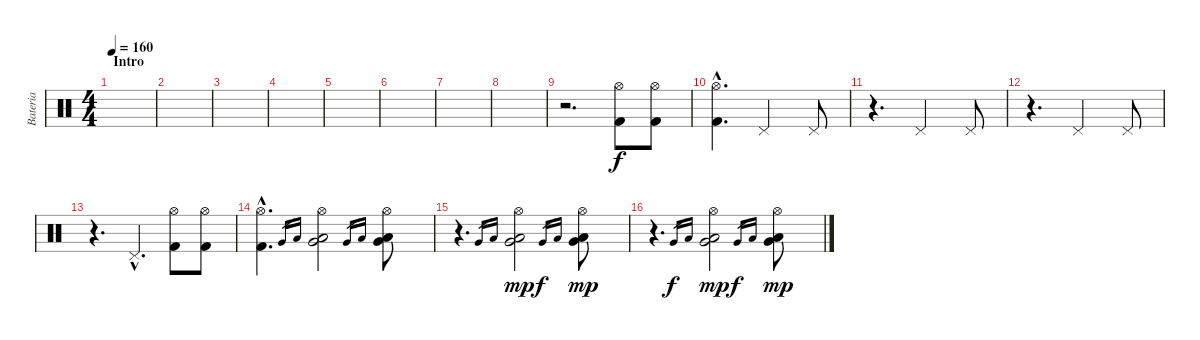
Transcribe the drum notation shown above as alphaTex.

\track ("Bateria" "Bateria") {instrument percussion}
\staff {score}
\articulation defaults
\ts (4 4)
\section ("" "Intro")
\tempo 160
\clef neutral
\ks c
|
|
|
|
|
|
|
|
r.2{d} ("Kick (hit) 2" "Hi-Hat (open)").8 ("Kick (hit) 2" "Hi-Hat (open)").8 |
("Kick (hit) 2"{hac} "Hi-Hat (open)"{hac}).4{d} "Pedal Hi-Hat (hit)".2 "Pedal Hi-Hat (hit)".8 |
r.4{d} "Pedal Hi-Hat (hit)".2 "Pedal Hi-Hat (hit)".8 |
r.4{d} "Pedal Hi-Hat (hit)".2 "Pedal Hi-Hat (hit)".8 |
r.4{d} "Pedal Hi-Hat (hit)"{hac}.4{d} ("Hi-Hat (open)" "Kick (hit) 2").8 ("Hi-Hat (open)" "Kick (hit) 2").8 |
("Kick (hit) 2"{hac} "Hi-Hat (open)"{hac}).4{d} "Very Low Tom (hit)".16{gr} "Low Tom (hit)".16{gr} ("Very Low Tom (hit)" "Low Tom (hit)" "Hi-Hat (open)").2 "Very Low Tom (hit)".16{gr} "Low Tom (hit)".16{gr} ("Very Low Tom (hit)" "Low Tom (hit)" "Hi-Hat (open)").8 |
r.4{d} "Very Low Tom (hit)".16{gr} "Low Tom (hit)".16{gr} ("Very Low Tom (hit)" "Low Tom (hit)" "Hi-Hat (open)").2{dy mp} "Very Low Tom (hit)".16{gr dy f} "Low Tom (hit)".16{gr} ("Very Low Tom (hit)" "Low Tom (hit)" "Hi-Hat (open)").8{dy mp} |
r.4{d} "Very Low Tom (hit)".16{gr dy f} "Low Tom (hit)".16{gr} ("Very Low Tom (hit)" "Low Tom (hit)" "Hi-Hat (open)").2{dy mp} "Very Low Tom (hit)".16{gr dy f} "Low Tom (hit)".16{gr} ("Very Low Tom (hit)" "Low Tom (hit)" "Hi-Hat (open)").8{dy mp}
